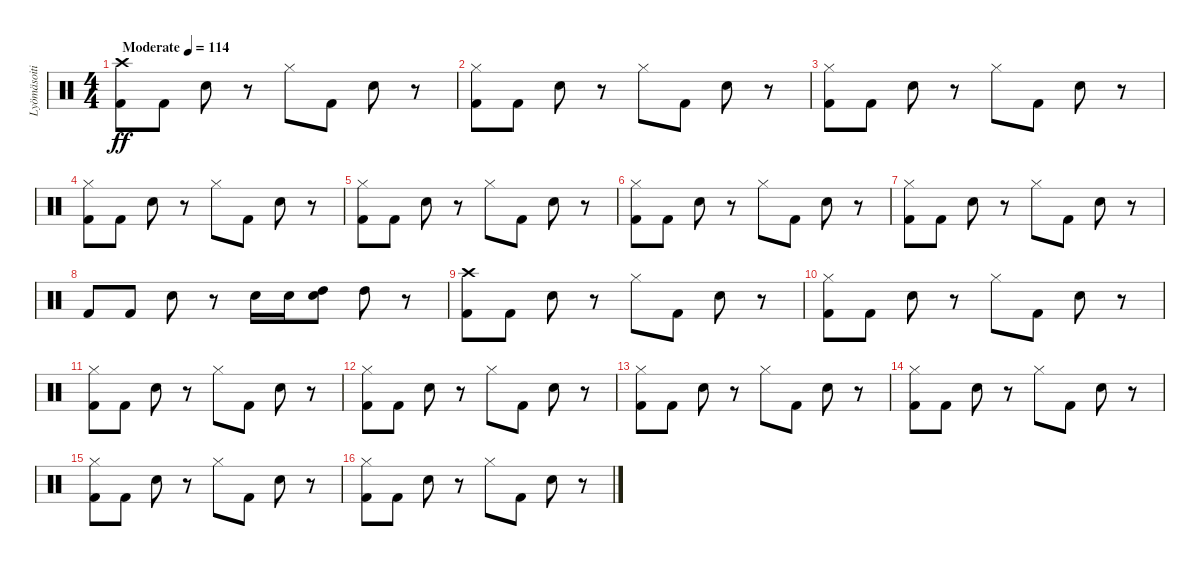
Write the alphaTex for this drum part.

\track ("Lyömäsoitin" "Lyömäsoiti") {instrument percussion}
\staff {score}
\articulation defaults
\ts (4 4)
\tempo (114 "Moderate")
\clef neutral
\ks c
("Crash high (hit)" "Kick (hit) 2").8{dy ff} "Kick (hit) 2".8 "Electric Snare (hit)".8 r.8 "Hi-Hat (closed)".8 "Kick (hit) 2".8 "Electric Snare (hit)".8 r.8 |
("Hi-Hat (closed)" "Kick (hit) 2").8 "Kick (hit) 2".8 "Electric Snare (hit)".8 r.8 "Hi-Hat (closed)".8 "Kick (hit) 2".8 "Electric Snare (hit)".8 r.8 |
("Hi-Hat (closed)" "Kick (hit) 2").8 "Kick (hit) 2".8 "Electric Snare (hit)".8 r.8 "Hi-Hat (closed)".8 "Kick (hit) 2".8 "Electric Snare (hit)".8 r.8 |
("Hi-Hat (closed)" "Kick (hit) 2").8 "Kick (hit) 2".8 "Electric Snare (hit)".8 r.8 "Hi-Hat (closed)".8 "Kick (hit) 2".8 "Electric Snare (hit)".8 r.8 |
("Hi-Hat (closed)" "Kick (hit) 2").8 "Kick (hit) 2".8 "Electric Snare (hit)".8 r.8 "Hi-Hat (closed)".8 "Kick (hit) 2".8 "Electric Snare (hit)".8 r.8 |
("Hi-Hat (closed)" "Kick (hit) 2").8 "Kick (hit) 2".8 "Electric Snare (hit)".8 r.8 "Hi-Hat (closed)".8 "Kick (hit) 2".8 "Electric Snare (hit)".8 r.8 |
("Hi-Hat (closed)" "Kick (hit) 2").8 "Kick (hit) 2".8 "Electric Snare (hit)".8 r.8 "Hi-Hat (closed)".8 "Kick (hit) 2".8 "Electric Snare (hit)".8 r.8 |
"Kick (hit) 2".8 "Kick (hit) 2".8 "Electric Snare (hit)".8 r.8 "Electric Snare (hit)".16 "Electric Snare (hit)".16 ("High Tom (hit)" "Electric Snare (hit)").8 "High Tom (hit)".8 r.8 |
("Crash high (hit)" "Kick (hit) 2").8 "Kick (hit) 2".8 "Electric Snare (hit)".8 r.8 "Hi-Hat (closed)".8 "Kick (hit) 2".8 "Electric Snare (hit)".8 r.8 |
("Hi-Hat (closed)" "Kick (hit) 2").8 "Kick (hit) 2".8 "Electric Snare (hit)".8 r.8 "Hi-Hat (closed)".8 "Kick (hit) 2".8 "Electric Snare (hit)".8 r.8 |
("Hi-Hat (closed)" "Kick (hit) 2").8 "Kick (hit) 2".8 "Electric Snare (hit)".8 r.8 "Hi-Hat (closed)".8 "Kick (hit) 2".8 "Electric Snare (hit)".8 r.8 |
("Hi-Hat (closed)" "Kick (hit) 2").8 "Kick (hit) 2".8 "Electric Snare (hit)".8 r.8 "Hi-Hat (closed)".8 "Kick (hit) 2".8 "Electric Snare (hit)".8 r.8 |
("Hi-Hat (closed)" "Kick (hit) 2").8 "Kick (hit) 2".8 "Electric Snare (hit)".8 r.8 "Hi-Hat (closed)".8 "Kick (hit) 2".8 "Electric Snare (hit)".8 r.8 |
("Hi-Hat (closed)" "Kick (hit) 2").8 "Kick (hit) 2".8 "Electric Snare (hit)".8 r.8 "Hi-Hat (closed)".8 "Kick (hit) 2".8 "Electric Snare (hit)".8 r.8 |
("Hi-Hat (closed)" "Kick (hit) 2").8 "Kick (hit) 2".8 "Electric Snare (hit)".8 r.8 "Hi-Hat (closed)".8 "Kick (hit) 2".8 "Electric Snare (hit)".8 r.8 |
("Hi-Hat (closed)" "Kick (hit) 2").8 "Kick (hit) 2".8 "Electric Snare (hit)".8 r.8 "Hi-Hat (closed)".8 "Kick (hit) 2".8 "Electric Snare (hit)".8 r.8
